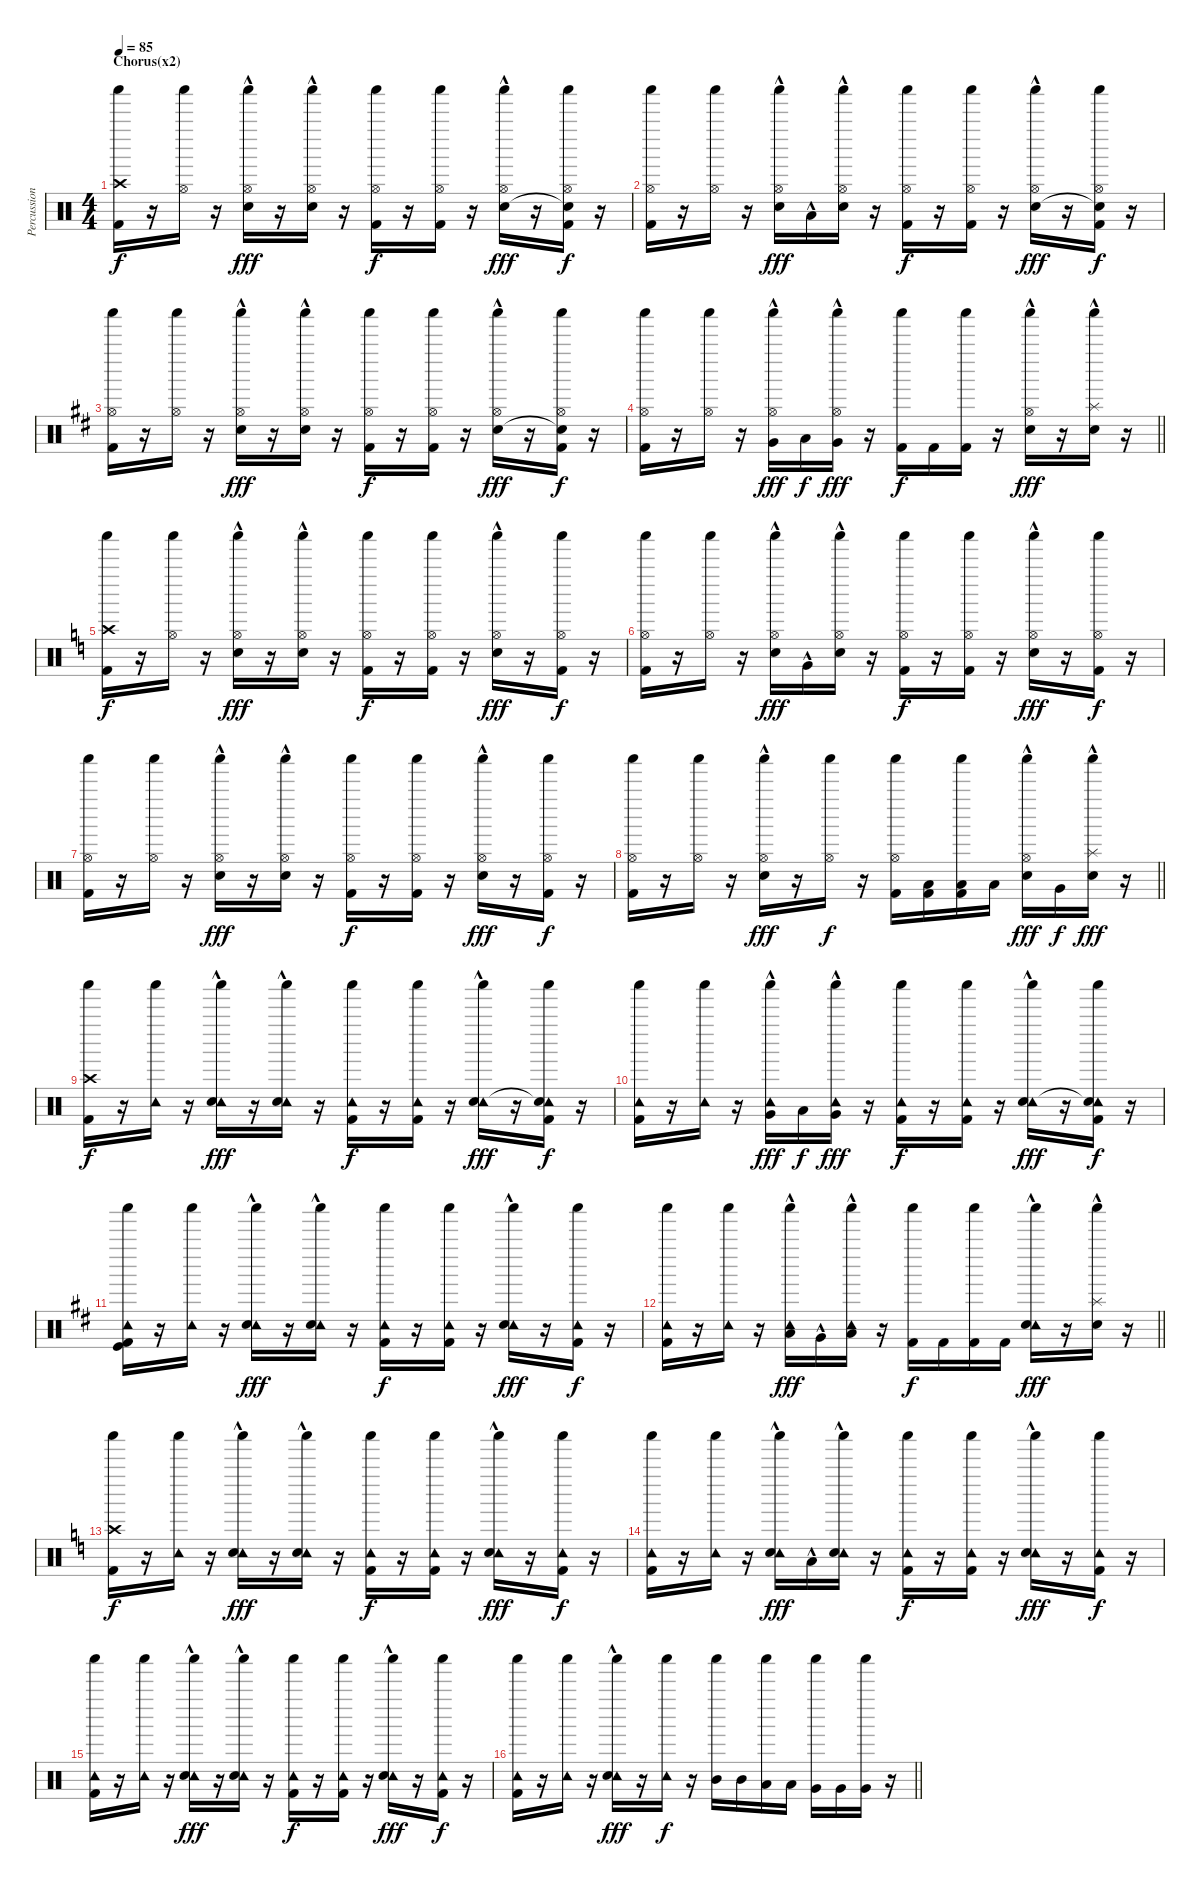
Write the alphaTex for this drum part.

\track ("Percussion" "Percussion") {instrument percussion}
\staff {score}
\articulation defaults
\ts (4 4)
\section ("" "Chorus(x2)")
\tempo 85
\clef neutral
\ks c
("Crash high (hit)" "Shaker (hit)" "Kick (hit) 2").16{dy f} r.16 ("Hi-Hat (open)" "Shaker (hit)").16 r.16 ("Hi-Hat (open)" "Shaker (hit)" "Snare (hit) 2"{hac}).16{dy fff} r.16 ("Hi-Hat (open)" "Shaker (hit)" "Snare (hit) 2"{hac}).16 r.16 ("Hi-Hat (open)" "Shaker (hit)" "Kick (hit) 2").16{dy f} r.16 ("Hi-Hat (open)" "Shaker (hit)" "Kick (hit) 2").16 r.16 ("Hi-Hat (open)" "Shaker (hit)" "Snare (hit) 2"{hac}).16{dy fff} r.16 ("Hi-Hat (open)" "Shaker (hit)" "Snare (hit) 2"{t} "Kick (hit) 2").16{dy f} r.16 |
("Hi-Hat (open)" "Shaker (hit)" "Kick (hit) 2").16 r.16 ("Hi-Hat (open)" "Shaker (hit)").16 r.16 ("Hi-Hat (open)" "Shaker (hit)" "Snare (hit) 2"{hac}).16{dy fff} "Low Tom (hit)"{hac}.16 ("Hi-Hat (open)" "Shaker (hit)" "Snare (hit) 2"{hac}).16 r.16 ("Hi-Hat (open)" "Shaker (hit)" "Kick (hit) 2").16{dy f} r.16 ("Hi-Hat (open)" "Shaker (hit)" "Kick (hit) 2").16 r.16 ("Hi-Hat (open)" "Shaker (hit)" "Snare (hit) 2"{hac}).16{dy fff} r.16 ("Hi-Hat (open)" "Shaker (hit)" "Snare (hit) 2"{t} "Kick (hit) 2").16{dy f} r.16 |
\ks d
("Hi-Hat (open)" "Shaker (hit)" "Kick (hit) 2").16 r.16 ("Hi-Hat (open)" "Shaker (hit)").16 r.16 ("Hi-Hat (open)" "Shaker (hit)" "Snare (hit) 2"{hac}).16{dy fff} r.16 ("Hi-Hat (open)" "Shaker (hit)" "Snare (hit) 2"{hac}).16 r.16 ("Hi-Hat (open)" "Shaker (hit)" "Kick (hit) 2").16{dy f} r.16 ("Hi-Hat (open)" "Shaker (hit)" "Kick (hit) 2").16 r.16 ("Hi-Hat (open)" "Shaker (hit)" "Snare (hit) 2"{hac}).16{dy fff} r.16 ("Hi-Hat (open)" "Shaker (hit)" "Snare (hit) 2"{t} "Kick (hit) 2").16{dy f} r.16 |
\barLineRight lightlight
("Hi-Hat (open)" "Shaker (hit)" "Kick (hit) 2").16 r.16 ("Hi-Hat (open)" "Shaker (hit)").16 r.16 ("Hi-Hat (open)" "Shaker (hit)" "Very Low Tom (hit)"{hac}).16{dy fff} "Low Tom (hit)".16{dy f} ("Hi-Hat (open)" "Shaker (hit)" "Very Low Tom (hit)"{hac}).16{dy fff} r.16 ("Shaker (hit)" "Kick (hit) 2").16{dy f} "Kick (hit) 2".16 ("Shaker (hit)" "Kick (hit) 2").16 r.16 ("Hi-Hat (open)" "Shaker (hit)" "Snare (hit) 2"{hac}).16{dy fff} r.16 ("Splash (hit)" "Shaker (hit)" "Snare (hit) 2"{hac}).16 r.16 |
\ks c
("Crash high (hit)" "Shaker (hit)" "Kick (hit) 2").16{dy f} r.16 ("Hi-Hat (open)" "Shaker (hit)").16 r.16 ("Hi-Hat (open)" "Shaker (hit)" "Snare (hit) 2"{hac}).16{dy fff} r.16 ("Hi-Hat (open)" "Shaker (hit)" "Snare (hit) 2"{hac}).16 r.16 ("Hi-Hat (open)" "Shaker (hit)" "Kick (hit) 2").16{dy f} r.16 ("Hi-Hat (open)" "Shaker (hit)" "Kick (hit) 2").16 r.16 ("Hi-Hat (open)" "Shaker (hit)" "Snare (hit) 2"{hac}).16{dy fff} r.16 ("Hi-Hat (open)" "Shaker (hit)" "Kick (hit) 2").16{dy f} r.16 |
("Hi-Hat (open)" "Shaker (hit)" "Kick (hit) 2").16 r.16 ("Hi-Hat (open)" "Shaker (hit)").16 r.16 ("Hi-Hat (open)" "Shaker (hit)" "Snare (hit) 2"{hac}).16{dy fff} "Very Low Tom (hit)"{hac}.16 ("Hi-Hat (open)" "Shaker (hit)" "Snare (hit) 2"{hac}).16 r.16 ("Hi-Hat (open)" "Shaker (hit)" "Kick (hit) 2").16{dy f} r.16 ("Hi-Hat (open)" "Shaker (hit)" "Kick (hit) 2").16 r.16 ("Hi-Hat (open)" "Shaker (hit)" "Snare (hit) 2"{hac}).16{dy fff} r.16 ("Hi-Hat (open)" "Shaker (hit)" "Kick (hit) 2").16{dy f} r.16 |
("Hi-Hat (open)" "Shaker (hit)" "Kick (hit) 2").16 r.16 ("Hi-Hat (open)" "Shaker (hit)").16 r.16 ("Hi-Hat (open)" "Shaker (hit)" "Snare (hit) 2"{hac}).16{dy fff} r.16 ("Hi-Hat (open)" "Shaker (hit)" "Snare (hit) 2"{hac}).16 r.16 ("Hi-Hat (open)" "Shaker (hit)" "Kick (hit) 2").16{dy f} r.16 ("Hi-Hat (open)" "Shaker (hit)" "Kick (hit) 2").16 r.16 ("Hi-Hat (open)" "Shaker (hit)" "Snare (hit) 2"{hac}).16{dy fff} r.16 ("Hi-Hat (open)" "Shaker (hit)" "Kick (hit) 2").16{dy f} r.16 |
\barLineRight lightlight
("Hi-Hat (open)" "Shaker (hit)" "Kick (hit) 2").16 r.16 ("Hi-Hat (open)" "Shaker (hit)").16 r.16 ("Hi-Hat (open)" "Shaker (hit)" "Snare (hit) 2"{hac}).16{dy fff} r.16 ("Hi-Hat (open)" "Shaker (hit)").16{dy f} r.16 ("Hi-Hat (open)" "Shaker (hit)" "Kick (hit) 2").16 ("Low Tom (hit)" "Kick (hit) 2").16 ("Low Tom (hit)" "Shaker (hit)" "Kick (hit) 2").16 "Low Tom (hit)".16 ("Hi-Hat (open)" "Shaker (hit)" "Snare (hit) 2"{hac}).16{dy fff} "Very Low Tom (hit)".16{dy f} ("Splash (hit)" "Shaker (hit)" "Snare (hit) 2"{hac}).16{dy fff} r.16 |
("Crash high (hit)" "Shaker (hit)" "Kick (hit) 2").16{dy f} r.16 ("Tambourine (hit)" "Shaker (hit)").16 r.16 ("Tambourine (hit)" "Shaker (hit)" "Snare (hit) 2"{hac}).16{dy fff} r.16 ("Tambourine (hit)" "Shaker (hit)" "Snare (hit) 2"{hac}).16 r.16 ("Tambourine (hit)" "Shaker (hit)" "Kick (hit) 2").16{dy f} r.16 ("Tambourine (hit)" "Shaker (hit)" "Kick (hit) 2").16 r.16 ("Tambourine (hit)" "Shaker (hit)" "Snare (hit) 2"{hac}).16{dy fff} r.16 ("Tambourine (hit)" "Shaker (hit)" "Snare (hit) 2"{t} "Kick (hit) 2").16{dy f} r.16 |
("Tambourine (hit)" "Shaker (hit)" "Kick (hit) 2").16 r.16 ("Tambourine (hit)" "Shaker (hit)").16 r.16 ("Tambourine (hit)" "Shaker (hit)" "Very Low Tom (hit)"{hac}).16{dy fff} "Low Tom (hit)".16{dy f} ("Tambourine (hit)" "Shaker (hit)" "Very Low Tom (hit)"{hac}).16{dy fff} r.16 ("Tambourine (hit)" "Shaker (hit)" "Kick (hit) 2").16{dy f} r.16 ("Tambourine (hit)" "Shaker (hit)" "Kick (hit) 2").16 r.16 ("Tambourine (hit)" "Shaker (hit)" "Snare (hit) 2"{hac}).16{dy fff} r.16 ("Tambourine (hit)" "Shaker (hit)" "Snare (hit) 2"{t} "Kick (hit) 2").16{dy f} r.16 |
\ks d
("Tambourine (hit)" "Shaker (hit)" "Kick (hit) 2" "Kick (hit)").16 r.16 ("Tambourine (hit)" "Shaker (hit)").16 r.16 ("Tambourine (hit)" "Shaker (hit)" "Snare (hit) 2"{hac}).16{dy fff} r.16 ("Tambourine (hit)" "Shaker (hit)" "Snare (hit) 2"{hac}).16 r.16 ("Tambourine (hit)" "Shaker (hit)" "Kick (hit) 2").16{dy f} r.16 ("Tambourine (hit)" "Shaker (hit)" "Kick (hit) 2").16 r.16 ("Tambourine (hit)" "Shaker (hit)" "Snare (hit) 2"{hac}).16{dy fff} r.16 ("Tambourine (hit)" "Shaker (hit)" "Kick (hit) 2").16{dy f} r.16 |
\barLineRight lightlight
("Tambourine (hit)" "Shaker (hit)" "Kick (hit) 2").16 r.16 ("Tambourine (hit)" "Shaker (hit)").16 r.16 ("Tambourine (hit)" "Shaker (hit)" "Low Tom (hit)"{hac}).16{dy fff} "Very Low Tom (hit)"{hac}.16 ("Tambourine (hit)" "Shaker (hit)" "Low Tom (hit)"{hac}).16 r.16 ("Shaker (hit)" "Kick (hit) 2").16{dy f} "Kick (hit) 2".16 ("Shaker (hit)" "Kick (hit) 2").16 "Kick (hit) 2".16 ("Tambourine (hit)" "Shaker (hit)" "Snare (hit) 2"{hac}).16{dy fff} r.16 ("Splash (hit)" "Shaker (hit)" "Snare (hit) 2"{hac}).16 r.16 |
\ks c
("Crash high (hit)" "Shaker (hit)" "Kick (hit) 2").16{dy f} r.16 ("Tambourine (hit)" "Shaker (hit)").16 r.16 ("Tambourine (hit)" "Shaker (hit)" "Snare (hit) 2"{hac}).16{dy fff} r.16 ("Tambourine (hit)" "Shaker (hit)" "Snare (hit) 2"{hac}).16 r.16 ("Tambourine (hit)" "Shaker (hit)" "Kick (hit) 2").16{dy f} r.16 ("Tambourine (hit)" "Shaker (hit)" "Kick (hit) 2").16 r.16 ("Tambourine (hit)" "Shaker (hit)" "Snare (hit) 2"{hac}).16{dy fff} r.16 ("Tambourine (hit)" "Shaker (hit)" "Kick (hit) 2").16{dy f} r.16 |
("Tambourine (hit)" "Shaker (hit)" "Kick (hit) 2").16 r.16 ("Tambourine (hit)" "Shaker (hit)").16 r.16 ("Tambourine (hit)" "Shaker (hit)" "Snare (hit) 2"{hac}).16{dy fff} "Low Tom (hit)"{hac}.16 ("Tambourine (hit)" "Shaker (hit)" "Snare (hit) 2"{hac}).16 r.16 ("Tambourine (hit)" "Shaker (hit)" "Kick (hit) 2").16{dy f} r.16 ("Tambourine (hit)" "Shaker (hit)" "Kick (hit) 2").16 r.16 ("Tambourine (hit)" "Shaker (hit)" "Snare (hit) 2"{hac}).16{dy fff} r.16 ("Tambourine (hit)" "Shaker (hit)" "Kick (hit) 2").16{dy f} r.16 |
("Tambourine (hit)" "Shaker (hit)" "Kick (hit) 2").16 r.16 ("Tambourine (hit)" "Shaker (hit)").16 r.16 ("Tambourine (hit)" "Shaker (hit)" "Snare (hit) 2"{hac}).16{dy fff} r.16 ("Tambourine (hit)" "Shaker (hit)" "Snare (hit) 2"{hac}).16 r.16 ("Tambourine (hit)" "Shaker (hit)" "Kick (hit) 2").16{dy f} r.16 ("Tambourine (hit)" "Shaker (hit)" "Kick (hit) 2").16 r.16 ("Tambourine (hit)" "Shaker (hit)" "Snare (hit) 2"{hac}).16{dy fff} r.16 ("Tambourine (hit)" "Shaker (hit)" "Kick (hit) 2").16{dy f} r.16 |
\barLineRight lightlight
("Tambourine (hit)" "Shaker (hit)" "Kick (hit) 2").16 r.16 ("Tambourine (hit)" "Shaker (hit)").16 r.16 ("Tambourine (hit)" "Shaker (hit)" "Snare (hit) 2"{hac}).16{dy fff} r.16 ("Tambourine (hit)" "Shaker (hit)").16{dy f} r.16 ("Shaker (hit)" "Mid Tom (hit)").16 "Mid Tom (hit)".16 ("Shaker (hit)" "Low Tom (hit)").16 "Low Tom (hit)".16 ("Shaker (hit)" "Very Low Tom (hit)").16 "Very Low Tom (hit)".16 ("Shaker (hit)" "Very Low Tom (hit)").16 r.16
